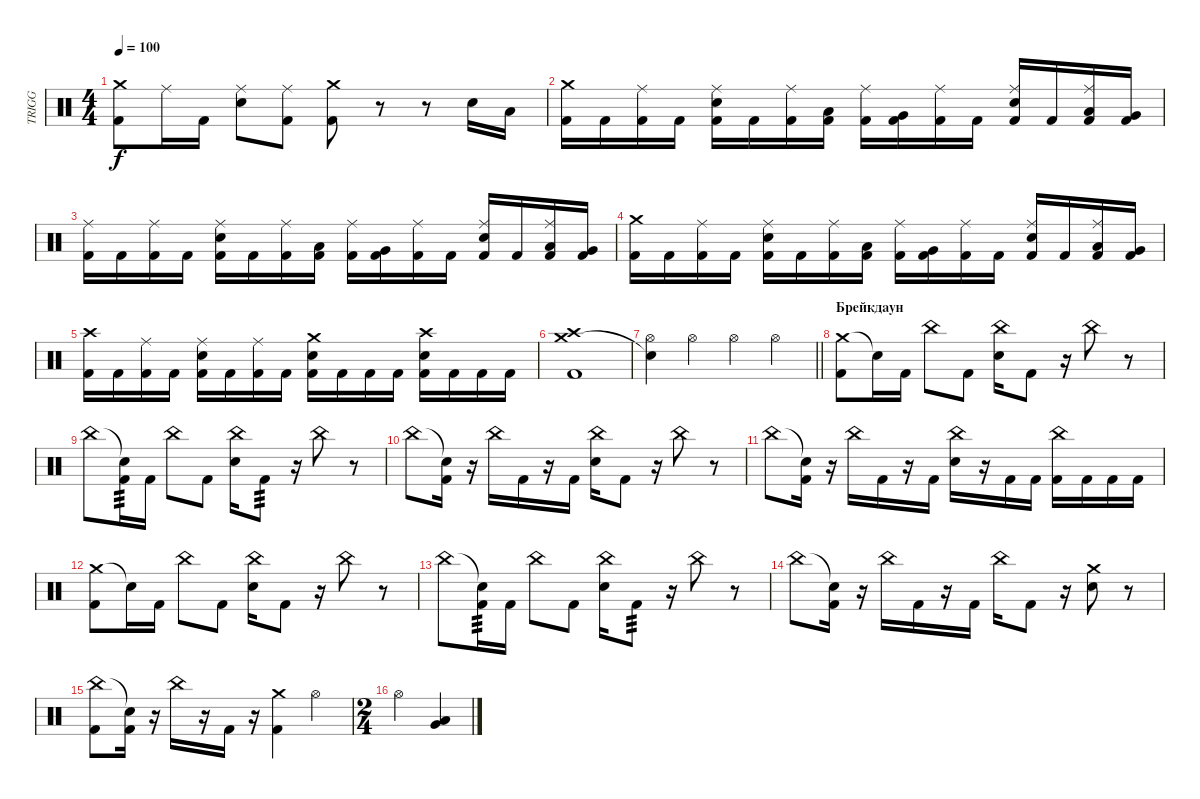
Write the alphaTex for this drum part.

\track ("TRIGG" "TRIGG") {instrument percussion}
\staff {score}
\articulation defaults
\ts (4 4)
\tempo 100
\clef neutral
\ks c
("Crash medium (hit)" "Kick (hit) 2").8{dy f} "Ride (middle)".16 "Kick (hit) 2".16 ("Ride (middle)" "Electric Snare (hit)").8 ("Ride (middle)" "Kick (hit) 2").8 ("Crash medium (hit)" "Kick (hit) 2").8 r.8 r.8 "Electric Snare (hit)".16 "Low Tom (hit)".16 |
("Crash medium (hit)" "Kick (hit) 2").16 "Kick (hit) 2".16 ("Ride (middle)" "Kick (hit) 2").16 "Kick (hit) 2".16 ("Ride (middle)" "Electric Snare (hit)" "Kick (hit) 2").16 "Kick (hit) 2".16 ("Ride (middle)" "Kick (hit) 2").16 ("Low Tom (hit)" "Kick (hit) 2").16 ("Ride (middle)" "Kick (hit) 2").16 ("Very Low Tom (hit)" "Kick (hit) 2").16 ("Ride (middle)" "Kick (hit) 2").16 "Kick (hit) 2".16 ("Ride (middle)" "Electric Snare (hit)" "Kick (hit) 2").16 "Kick (hit) 2".16 ("Ride (middle)" "Low Tom (hit)" "Kick (hit) 2").16 ("Very Low Tom (hit)" "Kick (hit) 2").16 |
("Ride (middle)" "Kick (hit) 2").16 "Kick (hit) 2".16 ("Ride (middle)" "Kick (hit) 2").16 "Kick (hit) 2".16 ("Ride (middle)" "Electric Snare (hit)" "Kick (hit) 2").16 "Kick (hit) 2".16 ("Ride (middle)" "Kick (hit) 2").16 ("Low Tom (hit)" "Kick (hit) 2").16 ("Ride (middle)" "Kick (hit) 2").16 ("Very Low Tom (hit)" "Kick (hit) 2").16 ("Ride (middle)" "Kick (hit) 2").16 "Kick (hit) 2".16 ("Ride (middle)" "Electric Snare (hit)" "Kick (hit) 2").16 "Kick (hit) 2".16 ("Ride (middle)" "Low Tom (hit)" "Kick (hit) 2").16 ("Very Low Tom (hit)" "Kick (hit) 2").16 |
("Crash medium (hit)" "Kick (hit) 2").16 "Kick (hit) 2".16 ("Ride (middle)" "Kick (hit) 2").16 "Kick (hit) 2".16 ("Ride (middle)" "Electric Snare (hit)" "Kick (hit) 2").16 "Kick (hit) 2".16 ("Ride (middle)" "Kick (hit) 2").16 ("Low Tom (hit)" "Kick (hit) 2").16 ("Ride (middle)" "Kick (hit) 2").16 ("Very Low Tom (hit)" "Kick (hit) 2").16 ("Ride (middle)" "Kick (hit) 2").16 "Kick (hit) 2".16 ("Ride (middle)" "Electric Snare (hit)" "Kick (hit) 2").16 "Kick (hit) 2".16 ("Ride (middle)" "Low Tom (hit)" "Kick (hit) 2").16 ("Very Low Tom (hit)" "Kick (hit) 2").16 |
("Crash high (hit)" "Kick (hit) 2").16 "Kick (hit) 2".16 ("Ride (middle)" "Kick (hit) 2").16 "Kick (hit) 2".16 ("Ride (middle)" "Electric Snare (hit)" "Kick (hit) 2").16 "Kick (hit) 2".16 ("Ride (middle)" "Kick (hit) 2").16 "Kick (hit) 2".16 ("Crash medium (hit)" "Electric Snare (hit)" "Kick (hit) 2").16 "Kick (hit) 2".16 "Kick (hit) 2".16 "Kick (hit) 2".16 ("Crash high (hit)" "Electric Snare (hit)" "Kick (hit) 2").16 "Kick (hit) 2".16 "Kick (hit) 2".16 "Kick (hit) 2".16 |
("Crash medium (hit)" "Crash high (hit)" "Kick (hit) 2").1 |
\barLineRight lightlight
("Snare (hit)"{t} "Hi-Hat (open)").4 "Hi-Hat (open)".4 "Hi-Hat (open)".4 "Hi-Hat (open)".4 |
\section ("" "Брейкдаун")
("Crash medium (hit)" "Kick (hit) 2").8 "Snare (hit)"{t}.16 "Kick (hit) 2".16 "China (hit)".8 "Kick (hit) 2".8 ("China (hit)" "Electric Snare (hit)").16 "Kick (hit) 2".8 r.16 "China (hit)".8 r.8 |
"China (hit)".8 ("Snare (hit)"{t} "Kick (hit) 2").16{tp 3} "Kick (hit) 2".16 "China (hit)".8 "Kick (hit) 2".8 ("China (hit)" "Electric Snare (hit)").16 "Kick (hit) 2".8{tp 3} r.16 "China (hit)".8 r.8 |
"China (hit)".8 ("Snare (hit)"{t} "Kick (hit) 2").16 r.16 "China (hit)".16 "Kick (hit) 2".16 r.16 "Kick (hit) 2".16 ("China (hit)" "Electric Snare (hit)").16 "Kick (hit) 2".8 r.16 "China (hit)".8 r.8 |
"China (hit)".8 ("Snare (hit)"{t} "Kick (hit) 2").16 r.16 "China (hit)".16 "Kick (hit) 2".16 r.16 "Kick (hit) 2".16 ("China (hit)" "Electric Snare (hit)").16 r.16 "Kick (hit) 2".16 "Kick (hit) 2".16 ("China (hit)" "Kick (hit) 2").16 "Kick (hit) 2".16 "Kick (hit) 2".16 "Kick (hit) 2".16 |
("Crash medium (hit)" "Kick (hit) 2").8 "Snare (hit)"{t}.16 "Kick (hit) 2".16 "China (hit)".8 "Kick (hit) 2".8 ("China (hit)" "Electric Snare (hit)").16 "Kick (hit) 2".8 r.16 "China (hit)".8 r.8 |
"China (hit)".8 ("Snare (hit)"{t} "Kick (hit) 2").16{tp 3} "Kick (hit) 2".16 "China (hit)".8 "Kick (hit) 2".8 ("China (hit)" "Electric Snare (hit)").16 "Kick (hit) 2".8{tp 3} r.16 "China (hit)".8 r.8 |
"China (hit)".8 ("Snare (hit)"{t} "Kick (hit) 2").16 r.16 "China (hit)".16 "Kick (hit) 2".16 r.16 "Kick (hit) 2".16 "China (hit)".16 "Kick (hit) 2".8 r.16 ("Crash medium (hit)" "Electric Snare (hit)").8 r.8 |
("China (hit)" "Kick (hit) 2").8 ("Snare (hit)"{t} "Kick (hit) 2").16 r.16 "China (hit)".16 r.16 "Kick (hit) 2".16 r.16 ("Crash medium (hit)" "Kick (hit) 2").4 "Hi-Hat (open)".4 |
\ts (2 4)
"Hi-Hat (open)".4 ("Very Low Tom (hit)" "Low Floor Tom (hit)").4
